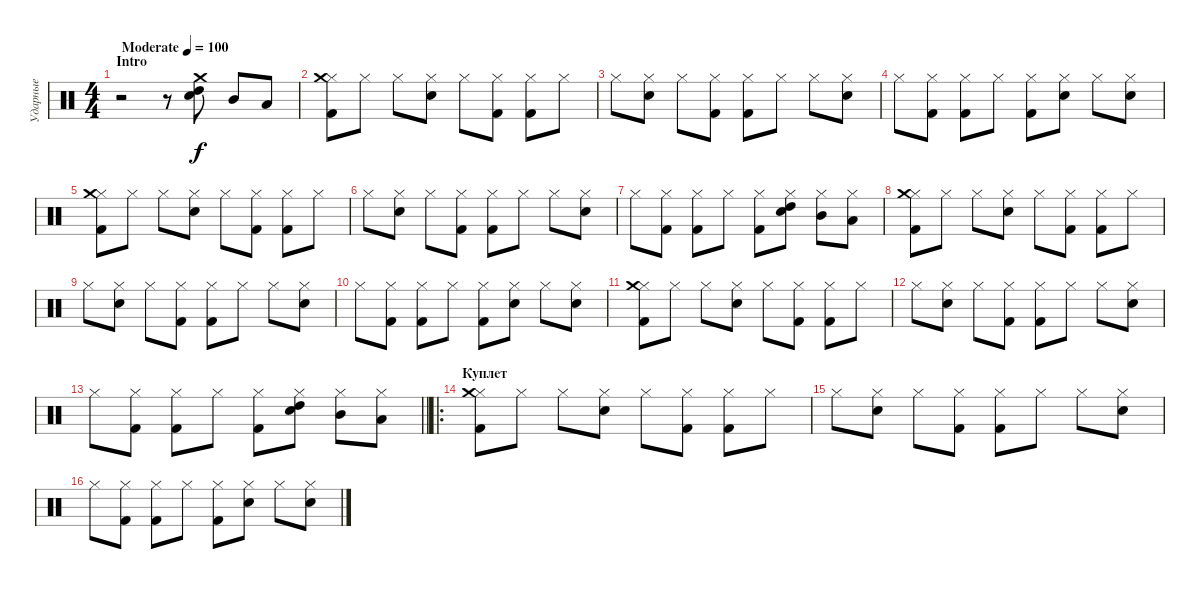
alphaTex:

\track ("Ударные" "Ударные") {instrument percussion}
\staff {score}
\articulation defaults
\ts (4 4)
\section ("" "Intro")
\tempo (100 "Moderate")
\clef neutral
\ks c
r.2{dy f} r.8 ("High Tom (hit)" "Electric Snare (hit)" "Crash medium (hit)").8 "Mid Tom (hit)".8 "Low Tom (hit)".8 |
("Hi-Hat (closed)" "Kick (hit) 2" "Crash medium (hit)").8 "Hi-Hat (closed)".8 "Hi-Hat (closed)".8 ("Hi-Hat (closed)" "Electric Snare (hit)").8 "Hi-Hat (closed)".8 ("Hi-Hat (closed)" "Kick (hit) 2").8 ("Hi-Hat (closed)" "Kick (hit) 2").8 "Hi-Hat (closed)".8 |
"Hi-Hat (closed)".8 ("Hi-Hat (closed)" "Electric Snare (hit)").8 "Hi-Hat (closed)".8 ("Hi-Hat (closed)" "Kick (hit) 2").8 ("Hi-Hat (closed)" "Kick (hit) 2").8 "Hi-Hat (closed)".8 "Hi-Hat (closed)".8 ("Hi-Hat (closed)" "Electric Snare (hit)").8 |
"Hi-Hat (closed)".8 ("Hi-Hat (closed)" "Kick (hit) 2").8 ("Hi-Hat (closed)" "Kick (hit) 2").8 "Hi-Hat (closed)".8 ("Hi-Hat (closed)" "Kick (hit) 2").8 ("Hi-Hat (closed)" "Electric Snare (hit)").8 "Hi-Hat (closed)".8 ("Hi-Hat (closed)" "Electric Snare (hit)").8 |
("Hi-Hat (closed)" "Kick (hit) 2" "Crash medium (hit)").8 "Hi-Hat (closed)".8 "Hi-Hat (closed)".8 ("Hi-Hat (closed)" "Electric Snare (hit)").8 "Hi-Hat (closed)".8 ("Hi-Hat (closed)" "Kick (hit) 2").8 ("Hi-Hat (closed)" "Kick (hit) 2").8 "Hi-Hat (closed)".8 |
"Hi-Hat (closed)".8 ("Hi-Hat (closed)" "Electric Snare (hit)").8 "Hi-Hat (closed)".8 ("Hi-Hat (closed)" "Kick (hit) 2").8 ("Hi-Hat (closed)" "Kick (hit) 2").8 "Hi-Hat (closed)".8 "Hi-Hat (closed)".8 ("Hi-Hat (closed)" "Electric Snare (hit)").8 |
"Hi-Hat (closed)".8 ("Hi-Hat (closed)" "Kick (hit) 2").8 ("Hi-Hat (closed)" "Kick (hit) 2").8 "Hi-Hat (closed)".8 ("Hi-Hat (closed)" "Kick (hit) 2").8 ("Hi-Hat (closed)" "Electric Snare (hit)" "High Tom (hit)").8 ("Hi-Hat (closed)" "Mid Tom (hit)").8 ("Hi-Hat (closed)" "Low Tom (hit)").8 |
("Hi-Hat (closed)" "Kick (hit) 2" "Crash medium (hit)").8 "Hi-Hat (closed)".8 "Hi-Hat (closed)".8 ("Hi-Hat (closed)" "Electric Snare (hit)").8 "Hi-Hat (closed)".8 ("Hi-Hat (closed)" "Kick (hit) 2").8 ("Hi-Hat (closed)" "Kick (hit) 2").8 "Hi-Hat (closed)".8 |
"Hi-Hat (closed)".8 ("Hi-Hat (closed)" "Electric Snare (hit)").8 "Hi-Hat (closed)".8 ("Hi-Hat (closed)" "Kick (hit) 2").8 ("Hi-Hat (closed)" "Kick (hit) 2").8 "Hi-Hat (closed)".8 "Hi-Hat (closed)".8 ("Hi-Hat (closed)" "Electric Snare (hit)").8 |
"Hi-Hat (closed)".8 ("Hi-Hat (closed)" "Kick (hit) 2").8 ("Hi-Hat (closed)" "Kick (hit) 2").8 "Hi-Hat (closed)".8 ("Hi-Hat (closed)" "Kick (hit) 2").8 ("Hi-Hat (closed)" "Electric Snare (hit)").8 "Hi-Hat (closed)".8 ("Hi-Hat (closed)" "Electric Snare (hit)").8 |
("Hi-Hat (closed)" "Kick (hit) 2" "Crash medium (hit)").8 "Hi-Hat (closed)".8 "Hi-Hat (closed)".8 ("Hi-Hat (closed)" "Electric Snare (hit)").8 "Hi-Hat (closed)".8 ("Hi-Hat (closed)" "Kick (hit) 2").8 ("Hi-Hat (closed)" "Kick (hit) 2").8 "Hi-Hat (closed)".8 |
"Hi-Hat (closed)".8 ("Hi-Hat (closed)" "Electric Snare (hit)").8 "Hi-Hat (closed)".8 ("Hi-Hat (closed)" "Kick (hit) 2").8 ("Hi-Hat (closed)" "Kick (hit) 2").8 "Hi-Hat (closed)".8 "Hi-Hat (closed)".8 ("Hi-Hat (closed)" "Electric Snare (hit)").8 |
\barLineRight lightlight "Hi-Hat (closed)".8
("Hi-Hat (closed)" "Kick (hit) 2").8 ("Hi-Hat (closed)" "Kick (hit) 2").8 "Hi-Hat (closed)".8 ("Hi-Hat (closed)" "Kick (hit) 2").8 ("Hi-Hat (closed)" "Electric Snare (hit)" "High Tom (hit)").8 ("Hi-Hat (closed)" "Mid Tom (hit)").8 ("Hi-Hat (closed)" "Low Tom (hit)").8 |
\ro
\section ("" "Куплет")
("Hi-Hat (closed)" "Kick (hit) 2" "Crash medium (hit)").8 "Hi-Hat (closed)".8 "Hi-Hat (closed)".8 ("Hi-Hat (closed)" "Electric Snare (hit)").8 "Hi-Hat (closed)".8 ("Hi-Hat (closed)" "Kick (hit) 2").8 ("Hi-Hat (closed)" "Kick (hit) 2").8 "Hi-Hat (closed)".8 |
"Hi-Hat (closed)".8 ("Hi-Hat (closed)" "Electric Snare (hit)").8 "Hi-Hat (closed)".8 ("Hi-Hat (closed)" "Kick (hit) 2").8 ("Hi-Hat (closed)" "Kick (hit) 2").8 "Hi-Hat (closed)".8 "Hi-Hat (closed)".8 ("Hi-Hat (closed)" "Electric Snare (hit)").8 |
"Hi-Hat (closed)".8 ("Hi-Hat (closed)" "Kick (hit) 2").8 ("Hi-Hat (closed)" "Kick (hit) 2").8 "Hi-Hat (closed)".8 ("Hi-Hat (closed)" "Kick (hit) 2").8 ("Hi-Hat (closed)" "Electric Snare (hit)").8 "Hi-Hat (closed)".8 ("Hi-Hat (closed)" "Electric Snare (hit)").8
